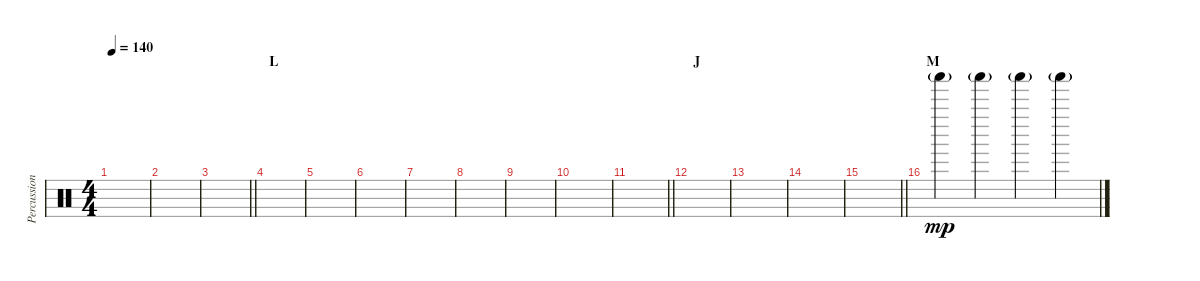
\track ("Percussion" "Percussion") {instrument percussion}
\staff {score}
\articulation defaults
\ts (4 4)
\tempo 140
\clef neutral
\ks c
|
|
\barLineRight lightlight
|
\section ("" "L")
|
|
|
|
|
|
|
\barLineRight lightlight
|
\section ("" "J")
|
|
|
\barLineRight lightlight
|
\section ("" "M")
"Shaker (hit)"{g}.4{dy mp} "Shaker (hit)"{g}.4 "Shaker (hit)"{g}.4 "Shaker (hit)"{g}.4
